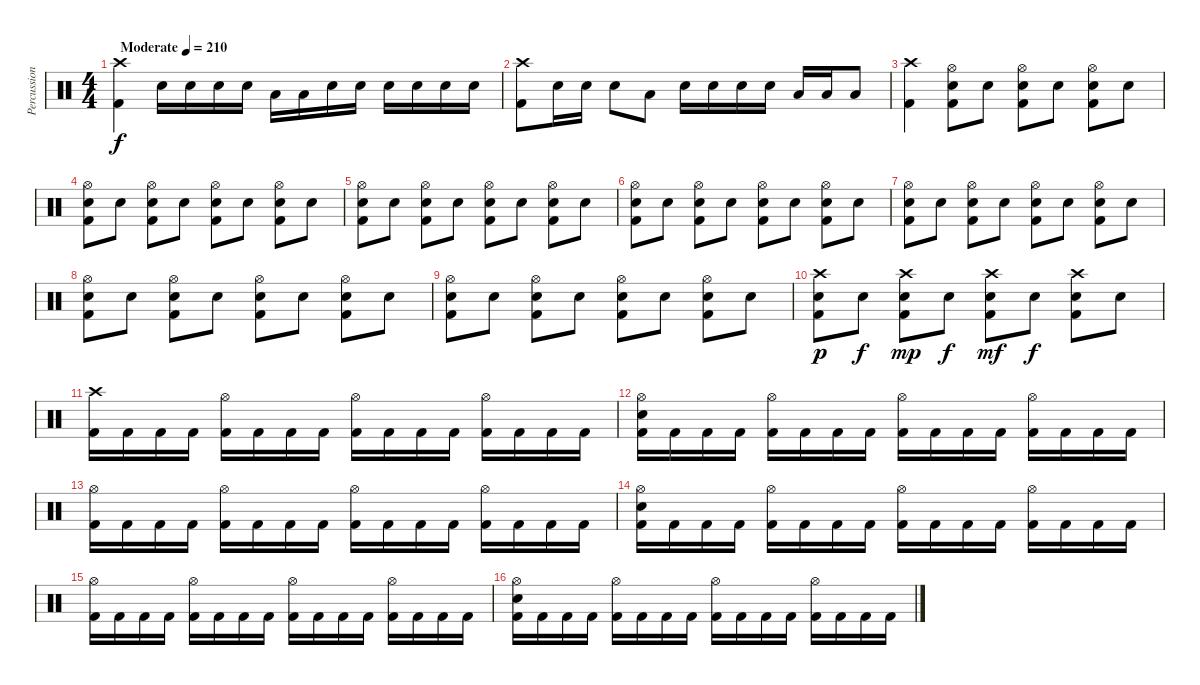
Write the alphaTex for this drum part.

\track ("Percussion" "Percussion") {instrument percussion}
\staff {score}
\articulation defaults
\ts (4 4)
\tempo (210 "Moderate")
\clef neutral
\ks c
("Crash high (hit)" "Kick (hit) 2").4{dy f} "Electric Snare (hit)".16 "Electric Snare (hit)".16 "Electric Snare (hit)".16 "Electric Snare (hit)".16 "Low Floor Tom (hit)".16 "Low Floor Tom (hit)".16 "Electric Snare (hit)".16 "Electric Snare (hit)".16 "Electric Snare (hit)".16 "Electric Snare (hit)".16 "Electric Snare (hit)".16 "Electric Snare (hit)".16 |
("Crash high (hit)" "Kick (hit) 2").8 "Electric Snare (hit)".16 "Electric Snare (hit)".16 "Electric Snare (hit)".8 "Low Floor Tom (hit)".8 "Electric Snare (hit)".16 "Electric Snare (hit)".16 "Electric Snare (hit)".16 "Electric Snare (hit)".16 "Low Floor Tom (hit)".16 "Low Floor Tom (hit)".16 "Low Floor Tom (hit)".8 |
("Crash high (hit)" "Kick (hit) 2").4 ("Hi-Hat (open)" "Electric Snare (hit)" "Kick (hit) 2").8 "Electric Snare (hit)".8 ("Hi-Hat (open)" "Electric Snare (hit)" "Kick (hit) 2").8 "Electric Snare (hit)".8 ("Hi-Hat (open)" "Electric Snare (hit)" "Kick (hit) 2").8 "Electric Snare (hit)".8 |
("Hi-Hat (open)" "Electric Snare (hit)" "Kick (hit) 2").8 "Electric Snare (hit)".8 ("Hi-Hat (open)" "Electric Snare (hit)" "Kick (hit) 2").8 "Electric Snare (hit)".8 ("Hi-Hat (open)" "Electric Snare (hit)" "Kick (hit) 2").8 "Electric Snare (hit)".8 ("Hi-Hat (open)" "Electric Snare (hit)" "Kick (hit) 2").8 "Electric Snare (hit)".8 |
("Hi-Hat (open)" "Electric Snare (hit)" "Kick (hit) 2").8 "Electric Snare (hit)".8 ("Hi-Hat (open)" "Electric Snare (hit)" "Kick (hit) 2").8 "Electric Snare (hit)".8 ("Hi-Hat (open)" "Electric Snare (hit)" "Kick (hit) 2").8 "Electric Snare (hit)".8 ("Hi-Hat (open)" "Electric Snare (hit)" "Kick (hit) 2").8 "Electric Snare (hit)".8 |
("Hi-Hat (open)" "Electric Snare (hit)" "Kick (hit) 2").8 "Electric Snare (hit)".8 ("Hi-Hat (open)" "Electric Snare (hit)" "Kick (hit) 2").8 "Electric Snare (hit)".8 ("Hi-Hat (open)" "Electric Snare (hit)" "Kick (hit) 2").8 "Electric Snare (hit)".8 ("Hi-Hat (open)" "Electric Snare (hit)" "Kick (hit) 2").8 "Electric Snare (hit)".8 |
("Hi-Hat (open)" "Electric Snare (hit)" "Kick (hit) 2").8 "Electric Snare (hit)".8 ("Hi-Hat (open)" "Electric Snare (hit)" "Kick (hit) 2").8 "Electric Snare (hit)".8 ("Hi-Hat (open)" "Electric Snare (hit)" "Kick (hit) 2").8 "Electric Snare (hit)".8 ("Hi-Hat (open)" "Electric Snare (hit)" "Kick (hit) 2").8 "Electric Snare (hit)".8 |
("Hi-Hat (open)" "Electric Snare (hit)" "Kick (hit) 2").8 "Electric Snare (hit)".8 ("Hi-Hat (open)" "Electric Snare (hit)" "Kick (hit) 2").8 "Electric Snare (hit)".8 ("Hi-Hat (open)" "Electric Snare (hit)" "Kick (hit) 2").8 "Electric Snare (hit)".8 ("Hi-Hat (open)" "Electric Snare (hit)" "Kick (hit) 2").8 "Electric Snare (hit)".8 |
("Hi-Hat (open)" "Electric Snare (hit)" "Kick (hit) 2").8 "Electric Snare (hit)".8 ("Hi-Hat (open)" "Electric Snare (hit)" "Kick (hit) 2").8 "Electric Snare (hit)".8 ("Hi-Hat (open)" "Electric Snare (hit)" "Kick (hit) 2").8 "Electric Snare (hit)".8 ("Hi-Hat (open)" "Electric Snare (hit)" "Kick (hit) 2").8 "Electric Snare (hit)".8 |
("Crash high (hit)" "Electric Snare (hit)" "Kick (hit) 2").8{dy p} "Electric Snare (hit)".8{dy f} ("Crash high (hit)" "Electric Snare (hit)" "Kick (hit) 2").8{dy mp} "Electric Snare (hit)".8{dy f} ("Crash high (hit)" "Electric Snare (hit)" "Kick (hit) 2").8{dy mf} "Electric Snare (hit)".8{dy f} ("Crash high (hit)" "Electric Snare (hit)" "Kick (hit) 2").8 "Electric Snare (hit)".8 |
("Crash high (hit)" "Kick (hit) 2").16 "Kick (hit) 2".16 "Kick (hit) 2".16 "Kick (hit) 2".16 ("Hi-Hat (open)" "Kick (hit) 2").16 "Kick (hit) 2".16 "Kick (hit) 2".16 "Kick (hit) 2".16 ("Hi-Hat (open)" "Kick (hit) 2").16 "Kick (hit) 2".16 "Kick (hit) 2".16 "Kick (hit) 2".16 ("Hi-Hat (open)" "Kick (hit) 2").16 "Kick (hit) 2".16 "Kick (hit) 2".16 "Kick (hit) 2".16 |
("Hi-Hat (open)" "Electric Snare (hit)" "Kick (hit) 2").16 "Kick (hit) 2".16 "Kick (hit) 2".16 "Kick (hit) 2".16 ("Hi-Hat (open)" "Kick (hit) 2").16 "Kick (hit) 2".16 "Kick (hit) 2".16 "Kick (hit) 2".16 ("Hi-Hat (open)" "Kick (hit) 2").16 "Kick (hit) 2".16 "Kick (hit) 2".16 "Kick (hit) 2".16 ("Hi-Hat (open)" "Kick (hit) 2").16 "Kick (hit) 2".16 "Kick (hit) 2".16 "Kick (hit) 2".16 |
("Hi-Hat (open)" "Kick (hit) 2").16 "Kick (hit) 2".16 "Kick (hit) 2".16 "Kick (hit) 2".16 ("Hi-Hat (open)" "Kick (hit) 2").16 "Kick (hit) 2".16 "Kick (hit) 2".16 "Kick (hit) 2".16 ("Hi-Hat (open)" "Kick (hit) 2").16 "Kick (hit) 2".16 "Kick (hit) 2".16 "Kick (hit) 2".16 ("Hi-Hat (open)" "Kick (hit) 2").16 "Kick (hit) 2".16 "Kick (hit) 2".16 "Kick (hit) 2".16 |
("Hi-Hat (open)" "Electric Snare (hit)" "Kick (hit) 2").16 "Kick (hit) 2".16 "Kick (hit) 2".16 "Kick (hit) 2".16 ("Hi-Hat (open)" "Kick (hit) 2").16 "Kick (hit) 2".16 "Kick (hit) 2".16 "Kick (hit) 2".16 ("Hi-Hat (open)" "Kick (hit) 2").16 "Kick (hit) 2".16 "Kick (hit) 2".16 "Kick (hit) 2".16 ("Hi-Hat (open)" "Kick (hit) 2").16 "Kick (hit) 2".16 "Kick (hit) 2".16 "Kick (hit) 2".16 |
("Hi-Hat (open)" "Kick (hit) 2").16 "Kick (hit) 2".16 "Kick (hit) 2".16 "Kick (hit) 2".16 ("Hi-Hat (open)" "Kick (hit) 2").16 "Kick (hit) 2".16 "Kick (hit) 2".16 "Kick (hit) 2".16 ("Hi-Hat (open)" "Kick (hit) 2").16 "Kick (hit) 2".16 "Kick (hit) 2".16 "Kick (hit) 2".16 ("Hi-Hat (open)" "Kick (hit) 2").16 "Kick (hit) 2".16 "Kick (hit) 2".16 "Kick (hit) 2".16 |
("Hi-Hat (open)" "Electric Snare (hit)" "Kick (hit) 2").16 "Kick (hit) 2".16 "Kick (hit) 2".16 "Kick (hit) 2".16 ("Hi-Hat (open)" "Kick (hit) 2").16 "Kick (hit) 2".16 "Kick (hit) 2".16 "Kick (hit) 2".16 ("Hi-Hat (open)" "Kick (hit) 2").16 "Kick (hit) 2".16 "Kick (hit) 2".16 "Kick (hit) 2".16 ("Hi-Hat (open)" "Kick (hit) 2").16 "Kick (hit) 2".16 "Kick (hit) 2".16 "Kick (hit) 2".16
